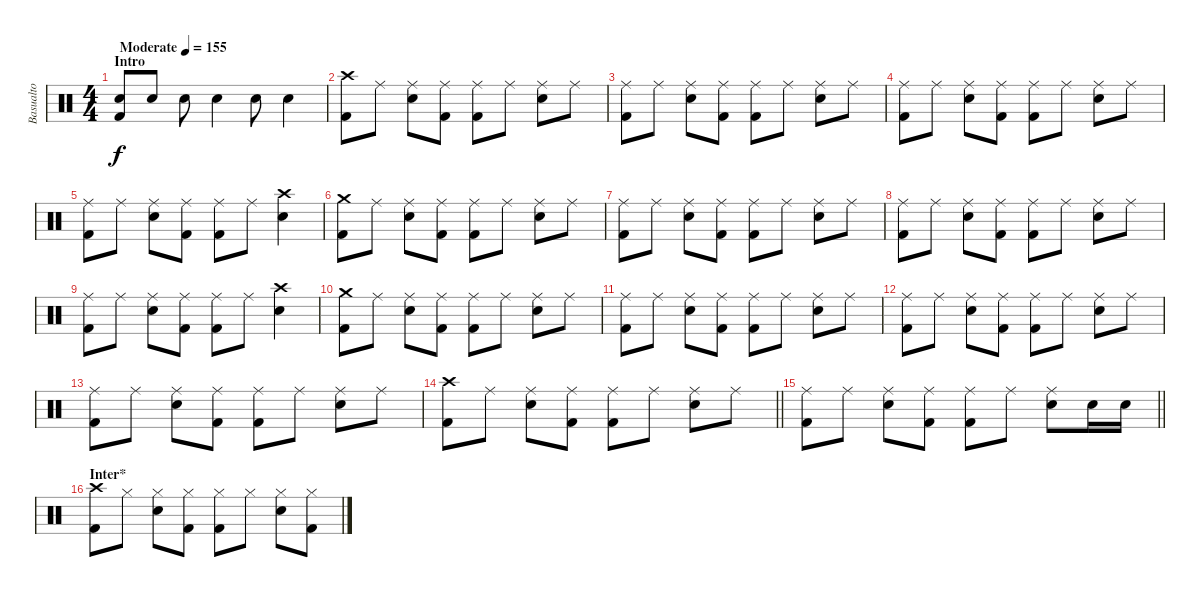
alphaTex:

\track ("Basualto" "Basualto") {instrument percussion}
\staff {score}
\articulation defaults
\ts (4 4)
\section ("" "Intro")
\tempo (155 "Moderate")
\clef neutral
\ks c
("Electric Snare (hit)" "Kick (hit) 2").8{dy f} "Electric Snare (hit)".8 "Electric Snare (hit)".8 "Electric Snare (hit)".4 "Electric Snare (hit)".8 "Electric Snare (hit)".4 |
("Crash high (hit)" "Kick (hit) 2").8 "Ride (middle)".8 ("Ride (middle)" "Electric Snare (hit)").8 ("Ride (middle)" "Kick (hit) 2").8 ("Ride (middle)" "Kick (hit) 2").8 "Ride (middle)".8 ("Ride (middle)" "Electric Snare (hit)").8 "Ride (middle)".8 |
("Ride (middle)" "Kick (hit) 2").8 "Ride (middle)".8 ("Ride (middle)" "Electric Snare (hit)").8 ("Ride (middle)" "Kick (hit) 2").8 ("Ride (middle)" "Kick (hit) 2").8 "Ride (middle)".8 ("Ride (middle)" "Electric Snare (hit)").8 "Ride (middle)".8 |
("Ride (middle)" "Kick (hit) 2").8 "Ride (middle)".8 ("Ride (middle)" "Electric Snare (hit)").8 ("Ride (middle)" "Kick (hit) 2").8 ("Ride (middle)" "Kick (hit) 2").8 "Ride (middle)".8 ("Ride (middle)" "Electric Snare (hit)").8 "Ride (middle)".8 |
("Ride (middle)" "Kick (hit) 2").8 "Ride (middle)".8 ("Ride (middle)" "Electric Snare (hit)").8 ("Ride (middle)" "Kick (hit) 2").8 ("Ride (middle)" "Kick (hit) 2").8 "Ride (middle)".8 ("Crash high (hit)" "Electric Snare (hit)").4 |
("Crash medium (hit)" "Kick (hit) 2").8 "Ride (middle)".8 ("Ride (middle)" "Electric Snare (hit)").8 ("Ride (middle)" "Kick (hit) 2").8 ("Ride (middle)" "Kick (hit) 2").8 "Ride (middle)".8 ("Ride (middle)" "Electric Snare (hit)").8 "Ride (middle)".8 |
("Ride (middle)" "Kick (hit) 2").8 "Ride (middle)".8 ("Ride (middle)" "Electric Snare (hit)").8 ("Ride (middle)" "Kick (hit) 2").8 ("Ride (middle)" "Kick (hit) 2").8 "Ride (middle)".8 ("Ride (middle)" "Electric Snare (hit)").8 "Ride (middle)".8 |
("Ride (middle)" "Kick (hit) 2").8 "Ride (middle)".8 ("Ride (middle)" "Electric Snare (hit)").8 ("Ride (middle)" "Kick (hit) 2").8 ("Ride (middle)" "Kick (hit) 2").8 "Ride (middle)".8 ("Ride (middle)" "Electric Snare (hit)").8 "Ride (middle)".8 |
("Ride (middle)" "Kick (hit) 2").8 "Ride (middle)".8 ("Ride (middle)" "Electric Snare (hit)").8 ("Ride (middle)" "Kick (hit) 2").8 ("Ride (middle)" "Kick (hit) 2").8 "Ride (middle)".8 ("Crash high (hit)" "Electric Snare (hit)").4 |
("Crash medium (hit)" "Kick (hit) 2").8 "Ride (middle)".8 ("Ride (middle)" "Electric Snare (hit)").8 ("Ride (middle)" "Kick (hit) 2").8 ("Ride (middle)" "Kick (hit) 2").8 "Ride (middle)".8 ("Ride (middle)" "Electric Snare (hit)").8 "Ride (middle)".8 |
("Ride (middle)" "Kick (hit) 2").8 "Ride (middle)".8 ("Ride (middle)" "Electric Snare (hit)").8 ("Ride (middle)" "Kick (hit) 2").8 ("Ride (middle)" "Kick (hit) 2").8 "Ride (middle)".8 ("Ride (middle)" "Electric Snare (hit)").8 "Ride (middle)".8 |
("Ride (middle)" "Kick (hit) 2").8 "Ride (middle)".8 ("Ride (middle)" "Electric Snare (hit)").8 ("Ride (middle)" "Kick (hit) 2").8 ("Ride (middle)" "Kick (hit) 2").8 "Ride (middle)".8 ("Ride (middle)" "Electric Snare (hit)").8 "Ride (middle)".8 |
("Ride (middle)" "Kick (hit) 2").8 "Ride (middle)".8 ("Ride (middle)" "Electric Snare (hit)").8 ("Ride (middle)" "Kick (hit) 2").8 ("Ride (middle)" "Kick (hit) 2").8 "Ride (middle)".8 ("Ride (middle)" "Electric Snare (hit)").8 "Ride (middle)".8 |
\barLineRight lightlight
("Crash high (hit)" "Kick (hit) 2").8 "Ride (middle)".8 ("Ride (middle)" "Electric Snare (hit)").8 ("Ride (middle)" "Kick (hit) 2").8 ("Ride (middle)" "Kick (hit) 2").8 "Ride (middle)".8 ("Ride (middle)" "Electric Snare (hit)").8 "Ride (middle)".8 |
\barLineRight lightlight
("Ride (middle)" "Kick (hit) 2").8 "Ride (middle)".8 ("Ride (middle)" "Electric Snare (hit)").8 ("Ride (middle)" "Kick (hit) 2").8 ("Ride (middle)" "Kick (hit) 2").8 "Ride (middle)".8 ("Ride (middle)" "Electric Snare (hit)").8 "Electric Snare (hit)".16 "Electric Snare (hit)".16 |
\section ("" "Inter*")
("Crash high (hit)" "Kick (hit) 2").8 "Hi-Hat (closed)".8 ("Hi-Hat (closed)" "Electric Snare (hit)").8 ("Hi-Hat (closed)" "Kick (hit) 2").8 ("Hi-Hat (closed)" "Kick (hit) 2").8 "Hi-Hat (closed)".8 ("Hi-Hat (closed)" "Electric Snare (hit)").8 ("Hi-Hat (closed)" "Kick (hit) 2").8
